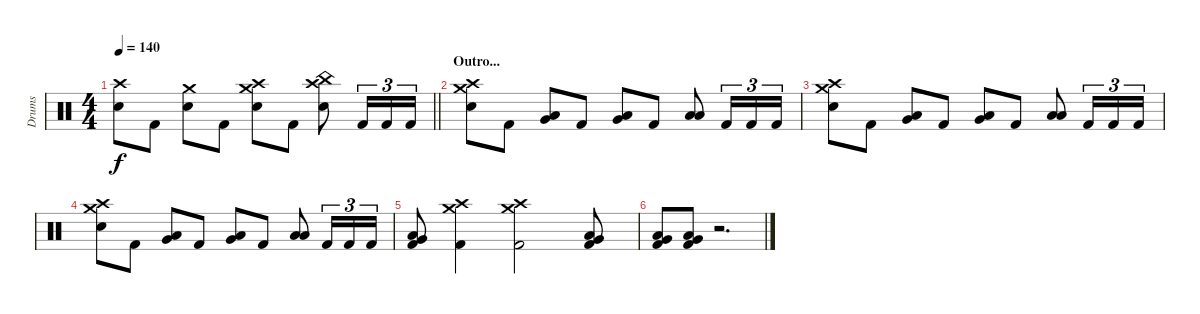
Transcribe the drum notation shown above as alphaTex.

\track ("Drums" "Drums") {instrument percussion}
\staff {score}
\articulation defaults
\ts (4 4)
\tempo 140
\clef neutral
\barLineRight lightlight
\ks c
("Crash high (hit)" "Snare (hit) 2").8{dy f} "Kick (hit) 2".8 ("Crash medium (hit)" "Snare (hit) 2").8 "Kick (hit) 2".8 ("Crash high (hit)" "Crash medium (hit)" "Snare (hit) 2").8 "Kick (hit) 2".8 ("Crash high (hit)" "China (hit)" "Snare (hit) 2").8 "Kick (hit) 2".16{tu (3 2)} "Kick (hit) 2".16{tu (3 2)} "Kick (hit) 2".16{tu (3 2)} |
\section ("" "Outro...")
("Crash high (hit)" "Crash medium (hit)" "Snare (hit) 2").8 "Kick (hit) 2".8 ("Low Tom (hit)" "Very Low Tom (hit)").8 "Kick (hit) 2".8 ("Very Low Tom (hit)" "Low Floor Tom (hit)").8 "Kick (hit) 2".8 ("Low Floor Tom (hit)" "Low Floor Tom (hit)").8 "Kick (hit) 2".16{tu (3 2)} "Kick (hit) 2".16{tu (3 2)} "Kick (hit) 2".16{tu (3 2)} |
("Crash high (hit)" "Crash medium (hit)" "Snare (hit) 2").8 "Kick (hit) 2".8 ("Low Tom (hit)" "Very Low Tom (hit)").8 "Kick (hit) 2".8 ("Very Low Tom (hit)" "Low Floor Tom (hit)").8 "Kick (hit) 2".8 ("Low Floor Tom (hit)" "Low Floor Tom (hit)").8 "Kick (hit) 2".16{tu (3 2)} "Kick (hit) 2".16{tu (3 2)} "Kick (hit) 2".16{tu (3 2)} |
("Crash high (hit)" "Crash medium (hit)" "Snare (hit) 2").8 "Kick (hit) 2".8 ("Low Tom (hit)" "Very Low Tom (hit)").8 "Kick (hit) 2".8 ("Very Low Tom (hit)" "Low Floor Tom (hit)").8 "Kick (hit) 2".8 ("Low Floor Tom (hit)" "Low Floor Tom (hit)").8 "Kick (hit) 2".16{tu (3 2)} "Kick (hit) 2".16{tu (3 2)} "Kick (hit) 2".16{tu (3 2)} |
("Low Tom (hit)" "Very Low Tom (hit)" "Kick (hit) 2").8 ("Crash high (hit)" "Crash medium (hit)" "Kick (hit) 2").4 ("Crash high (hit)" "Crash medium (hit)" "Kick (hit) 2").2 ("Low Tom (hit)" "Very Low Tom (hit)" "Kick (hit) 2").8 |
("Low Tom (hit)" "Very Low Tom (hit)" "Kick (hit) 2").8 ("Very Low Tom (hit)" "Low Floor Tom (hit)" "Kick (hit) 2").8 r.2{d}
